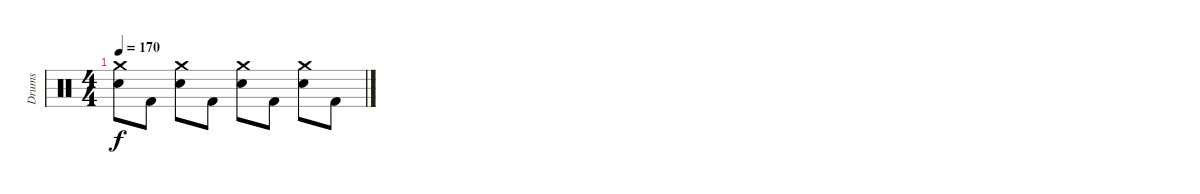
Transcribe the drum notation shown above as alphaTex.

\track ("Drums" "Drums") {instrument percussion}
\staff {score}
\articulation defaults
\ts (4 4)
\tempo 170
\clef neutral
\ks c
("Electric Snare (hit)" "Crash medium (hit)").8{dy f} "Kick (hit) 2".8 ("Electric Snare (hit)" "Crash medium (hit)").8 "Kick (hit) 2".8 ("Electric Snare (hit)" "Crash medium (hit)").8 "Kick (hit) 2".8 ("Electric Snare (hit)" "Crash medium (hit)").8 "Kick (hit) 2".8
